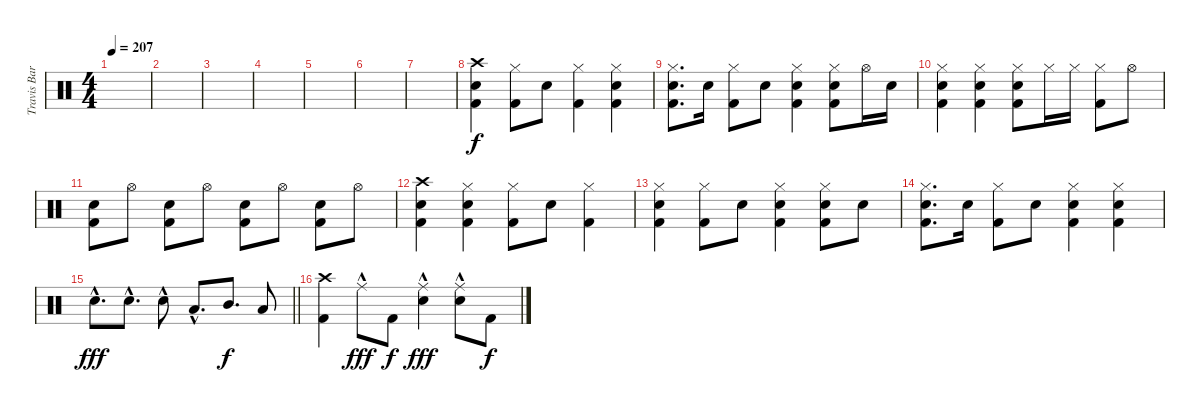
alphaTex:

\track ("Travis Barker" "Travis Bar") {instrument percussion}
\staff {score}
\articulation defaults
\ts (4 4)
\tempo 207
\clef neutral
\ks c
|
|
|
|
|
|
|
("Crash high (hit)" "Electric Snare (hit)" "Kick (hit) 2").4 ("Hi-Hat (closed)" "Kick (hit) 2").8 "Electric Snare (hit)".8 ("Hi-Hat (closed)" "Kick (hit) 2").4 ("Hi-Hat (closed)" "Electric Snare (hit)" "Kick (hit) 2").4 |
("Hi-Hat (closed)" "Electric Snare (hit)" "Kick (hit) 2").8{d} "Electric Snare (hit)".16 ("Hi-Hat (closed)" "Kick (hit) 2").8 "Electric Snare (hit)".8 ("Hi-Hat (closed)" "Electric Snare (hit)" "Kick (hit) 2").4 ("Hi-Hat (closed)" "Electric Snare (hit)" "Kick (hit) 2").8 "Hi-Hat (open)".16 "Electric Snare (hit)".16 |
("Hi-Hat (closed)" "Electric Snare (hit)" "Kick (hit) 2").4 ("Hi-Hat (closed)" "Electric Snare (hit)" "Kick (hit) 2").4 ("Hi-Hat (closed)" "Electric Snare (hit)" "Kick (hit) 2").8 "Hi-Hat (closed)".16 "Hi-Hat (closed)".16 ("Hi-Hat (closed)" "Kick (hit) 2").8 "Hi-Hat (open)".8 |
("Electric Snare (hit)" "Kick (hit) 2").8 "Hi-Hat (open)".8 ("Electric Snare (hit)" "Kick (hit) 2").8 "Hi-Hat (open)".8 ("Electric Snare (hit)" "Kick (hit) 2").8 "Hi-Hat (open)".8 ("Electric Snare (hit)" "Kick (hit) 2").8 "Hi-Hat (open)".8 |
("Crash high (hit)" "Electric Snare (hit)" "Kick (hit) 2").4 ("Hi-Hat (closed)" "Electric Snare (hit)" "Kick (hit) 2").4 ("Hi-Hat (closed)" "Kick (hit) 2").8 "Electric Snare (hit)".8 ("Hi-Hat (closed)" "Kick (hit) 2").4 |
("Electric Snare (hit)" "Hi-Hat (closed)" "Kick (hit) 2").4 ("Hi-Hat (closed)" "Kick (hit) 2").8 "Electric Snare (hit)".8 ("Kick (hit) 2" "Electric Snare (hit)" "Hi-Hat (closed)").4 ("Hi-Hat (closed)" "Electric Snare (hit)" "Kick (hit) 2").8 "Electric Snare (hit)".8 |
("Kick (hit) 2" "Electric Snare (hit)" "Hi-Hat (closed)").8{d} "Electric Snare (hit)".16 ("Hi-Hat (closed)" "Kick (hit) 2").8 "Electric Snare (hit)".8 ("Hi-Hat (closed)" "Electric Snare (hit)" "Kick (hit) 2").4 ("Hi-Hat (closed)" "Electric Snare (hit)" "Kick (hit) 2").4 |
\barLineRight lightlight "Electric Snare (hit)"{hac}.8{d dy fff} "Electric Snare (hit)"{hac}.8{d} "Electric Snare (hit)"{hac}.8 "Low Tom (hit)"{hac}.8{d} "Mid Tom (hit)".8{d dy f} "Low Tom (hit)".8
|
("Crash high (hit)" "Kick (hit) 2").4{volume 14} "Ride (middle)"{hac}.8{dy fff} "Kick (hit) 2".8{dy f} ("Ride (middle)"{hac} "Electric Snare (hit)").4{dy fff} ("Ride (middle)"{hac} "Electric Snare (hit)").8 "Kick (hit) 2".8{dy f}
